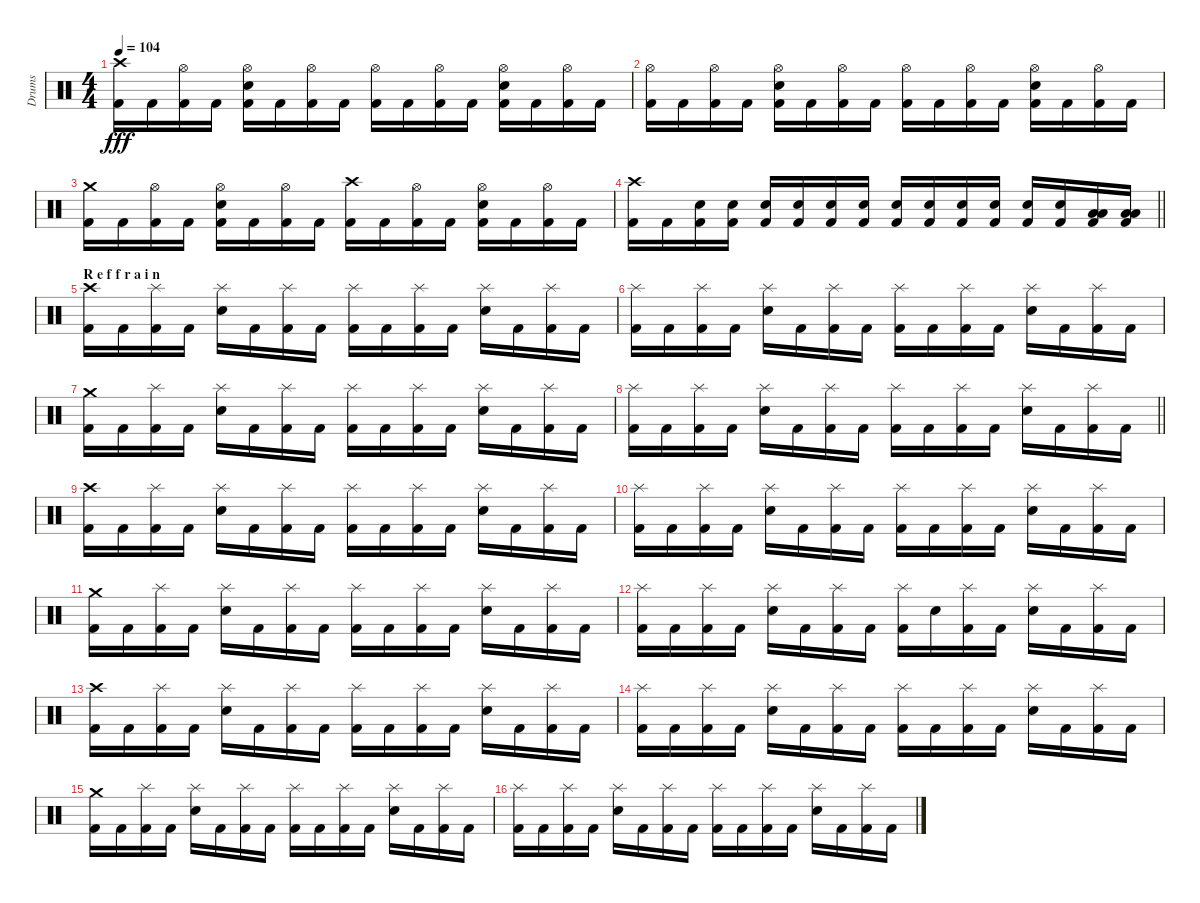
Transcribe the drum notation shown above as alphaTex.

\track ("Drums" "Drums") {instrument percussion}
\staff {score}
\articulation defaults
\ts (4 4)
\tempo 104
\clef neutral
\ks c
("Crash high (hit)" "Kick (hit) 2").16{dy fff} "Kick (hit) 2".16 ("Hi-Hat (open)" "Kick (hit) 2").16 "Kick (hit) 2".16 ("Hi-Hat (open)" "Snare (hit) 2" "Kick (hit) 2").16 "Kick (hit) 2".16 ("Hi-Hat (open)" "Kick (hit) 2").16 "Kick (hit) 2".16 ("Hi-Hat (open)" "Kick (hit) 2").16 "Kick (hit) 2".16 ("Hi-Hat (open)" "Kick (hit) 2").16 "Kick (hit) 2".16 ("Hi-Hat (open)" "Snare (hit) 2" "Kick (hit) 2").16 "Kick (hit) 2".16 ("Hi-Hat (open)" "Kick (hit) 2").16 "Kick (hit) 2".16 |
("Hi-Hat (open)" "Kick (hit) 2").16 "Kick (hit) 2".16 ("Hi-Hat (open)" "Kick (hit) 2").16 "Kick (hit) 2".16 ("Hi-Hat (open)" "Snare (hit) 2" "Kick (hit) 2").16 "Kick (hit) 2".16 ("Hi-Hat (open)" "Kick (hit) 2").16 "Kick (hit) 2".16 ("Hi-Hat (open)" "Kick (hit) 2").16 "Kick (hit) 2".16 ("Hi-Hat (open)" "Kick (hit) 2").16 "Kick (hit) 2".16 ("Hi-Hat (open)" "Snare (hit) 2" "Kick (hit) 2").16 "Kick (hit) 2".16 ("Hi-Hat (open)" "Kick (hit) 2").16 "Kick (hit) 2".16 |
("Crash medium (hit)" "Kick (hit) 2").16 "Kick (hit) 2".16 ("Hi-Hat (open)" "Kick (hit) 2").16 "Kick (hit) 2".16 ("Hi-Hat (open)" "Snare (hit) 2" "Kick (hit) 2").16 "Kick (hit) 2".16 ("Hi-Hat (open)" "Kick (hit) 2").16 "Kick (hit) 2".16 ("Crash high (hit)" "Kick (hit) 2").16 "Kick (hit) 2".16 ("Hi-Hat (open)" "Kick (hit) 2").16 "Kick (hit) 2".16 ("Hi-Hat (open)" "Snare (hit) 2" "Kick (hit) 2").16 "Kick (hit) 2".16 ("Hi-Hat (open)" "Kick (hit) 2").16 "Kick (hit) 2".16 |
\barLineRight lightlight
("Crash high (hit)" "Kick (hit) 2").16 "Kick (hit) 2".16 ("Snare (hit) 2" "Kick (hit) 2").16 ("Snare (hit) 2" "Kick (hit) 2").16 ("Snare (hit) 2" "Kick (hit) 2").16 ("Snare (hit) 2" "Kick (hit) 2").16 ("Snare (hit) 2" "Kick (hit) 2").16 ("Snare (hit) 2" "Kick (hit) 2").16 ("Snare (hit) 2" "Kick (hit) 2").16 ("Snare (hit) 2" "Kick (hit) 2").16 ("Snare (hit) 2" "Kick (hit) 2").16 ("Snare (hit) 2" "Kick (hit) 2").16 ("Snare (hit) 2" "Kick (hit) 2").16 ("Snare (hit) 2" "Kick (hit) 2").16 ("Low Tom (hit)" "Low Floor Tom (hit)" "Kick (hit) 2").16 ("Low Tom (hit)" "Low Floor Tom (hit)" "Kick (hit) 2").16 |
\section ("" "R e f f r a i n")
("Crash high (hit)" "Kick (hit) 2").16 "Kick (hit) 2".16 ("Splash (hit)" "Kick (hit) 2").16 "Kick (hit) 2".16 ("Splash (hit)" "Snare (hit) 2").16 "Kick (hit) 2".16 ("Splash (hit)" "Kick (hit) 2").16 "Kick (hit) 2".16 ("Splash (hit)" "Kick (hit) 2").16 "Kick (hit) 2".16 ("Splash (hit)" "Kick (hit) 2").16 "Kick (hit) 2".16 ("Splash (hit)" "Snare (hit) 2").16 "Kick (hit) 2".16 ("Splash (hit)" "Kick (hit) 2").16 "Kick (hit) 2".16 |
("Splash (hit)" "Kick (hit) 2").16 "Kick (hit) 2".16 ("Splash (hit)" "Kick (hit) 2").16 "Kick (hit) 2".16 ("Splash (hit)" "Snare (hit) 2").16 "Kick (hit) 2".16 ("Splash (hit)" "Kick (hit) 2").16 "Kick (hit) 2".16 ("Splash (hit)" "Kick (hit) 2").16 "Kick (hit) 2".16 ("Splash (hit)" "Kick (hit) 2").16 "Kick (hit) 2".16 ("Splash (hit)" "Snare (hit) 2").16 "Kick (hit) 2".16 ("Splash (hit)" "Kick (hit) 2").16 "Kick (hit) 2".16 |
("Crash medium (hit)" "Kick (hit) 2").16 "Kick (hit) 2".16 ("Splash (hit)" "Kick (hit) 2").16 "Kick (hit) 2".16 ("Splash (hit)" "Snare (hit) 2").16 "Kick (hit) 2".16 ("Splash (hit)" "Kick (hit) 2").16 "Kick (hit) 2".16 ("Splash (hit)" "Kick (hit) 2").16 "Kick (hit) 2".16 ("Splash (hit)" "Kick (hit) 2").16 "Kick (hit) 2".16 ("Splash (hit)" "Snare (hit) 2").16 "Kick (hit) 2".16 ("Splash (hit)" "Kick (hit) 2").16 "Kick (hit) 2".16 |
\barLineRight lightlight
("Splash (hit)" "Kick (hit) 2").16 "Kick (hit) 2".16 ("Splash (hit)" "Kick (hit) 2").16 "Kick (hit) 2".16 ("Splash (hit)" "Snare (hit) 2").16 "Kick (hit) 2".16 ("Splash (hit)" "Kick (hit) 2").16 "Kick (hit) 2".16 ("Splash (hit)" "Kick (hit) 2").16 "Kick (hit) 2".16 ("Splash (hit)" "Kick (hit) 2").16 "Kick (hit) 2".16 ("Splash (hit)" "Snare (hit) 2").16 "Kick (hit) 2".16 ("Splash (hit)" "Kick (hit) 2").16 "Kick (hit) 2".16 |
("Crash high (hit)" "Kick (hit) 2").16 "Kick (hit) 2".16 ("Splash (hit)" "Kick (hit) 2").16 "Kick (hit) 2".16 ("Splash (hit)" "Snare (hit) 2").16 "Kick (hit) 2".16 ("Splash (hit)" "Kick (hit) 2").16 "Kick (hit) 2".16 ("Splash (hit)" "Kick (hit) 2").16 "Kick (hit) 2".16 ("Splash (hit)" "Kick (hit) 2").16 "Kick (hit) 2".16 ("Splash (hit)" "Snare (hit) 2").16 "Kick (hit) 2".16 ("Splash (hit)" "Kick (hit) 2").16 "Kick (hit) 2".16 |
("Splash (hit)" "Kick (hit) 2").16 "Kick (hit) 2".16 ("Splash (hit)" "Kick (hit) 2").16 "Kick (hit) 2".16 ("Splash (hit)" "Snare (hit) 2").16 "Kick (hit) 2".16 ("Splash (hit)" "Kick (hit) 2").16 "Kick (hit) 2".16 ("Splash (hit)" "Kick (hit) 2").16 "Kick (hit) 2".16 ("Splash (hit)" "Kick (hit) 2").16 "Kick (hit) 2".16 ("Splash (hit)" "Snare (hit) 2").16 "Kick (hit) 2".16 ("Splash (hit)" "Kick (hit) 2").16 "Kick (hit) 2".16 |
("Crash medium (hit)" "Kick (hit) 2").16 "Kick (hit) 2".16 ("Splash (hit)" "Kick (hit) 2").16 "Kick (hit) 2".16 ("Splash (hit)" "Snare (hit) 2").16 "Kick (hit) 2".16 ("Splash (hit)" "Kick (hit) 2").16 "Kick (hit) 2".16 ("Splash (hit)" "Kick (hit) 2").16 "Kick (hit) 2".16 ("Splash (hit)" "Kick (hit) 2").16 "Kick (hit) 2".16 ("Splash (hit)" "Snare (hit) 2").16 "Kick (hit) 2".16 ("Splash (hit)" "Kick (hit) 2").16 "Kick (hit) 2".16 |
("Splash (hit)" "Kick (hit) 2").16 "Kick (hit) 2".16 ("Splash (hit)" "Kick (hit) 2").16 "Kick (hit) 2".16 ("Splash (hit)" "Snare (hit) 2").16 "Kick (hit) 2".16 ("Splash (hit)" "Kick (hit) 2").16 "Kick (hit) 2".16 ("Splash (hit)" "Kick (hit) 2").16 "Snare (hit) 2".16 ("Splash (hit)" "Kick (hit) 2").16 "Kick (hit) 2".16 ("Splash (hit)" "Snare (hit) 2").16 "Kick (hit) 2".16 ("Splash (hit)" "Kick (hit) 2").16 "Kick (hit) 2".16 |
("Crash high (hit)" "Kick (hit) 2").16 "Kick (hit) 2".16 ("Splash (hit)" "Kick (hit) 2").16 "Kick (hit) 2".16 ("Splash (hit)" "Snare (hit) 2").16 "Kick (hit) 2".16 ("Splash (hit)" "Kick (hit) 2").16 "Kick (hit) 2".16 ("Splash (hit)" "Kick (hit) 2").16 "Kick (hit) 2".16 ("Splash (hit)" "Kick (hit) 2").16 "Kick (hit) 2".16 ("Splash (hit)" "Snare (hit) 2").16 "Kick (hit) 2".16 ("Splash (hit)" "Kick (hit) 2").16 "Kick (hit) 2".16 |
("Splash (hit)" "Kick (hit) 2").16 "Kick (hit) 2".16 ("Splash (hit)" "Kick (hit) 2").16 "Kick (hit) 2".16 ("Splash (hit)" "Snare (hit) 2").16 "Kick (hit) 2".16 ("Splash (hit)" "Kick (hit) 2").16 "Kick (hit) 2".16 ("Splash (hit)" "Kick (hit) 2").16 "Kick (hit) 2".16 ("Splash (hit)" "Kick (hit) 2").16 "Kick (hit) 2".16 ("Splash (hit)" "Snare (hit) 2").16 "Kick (hit) 2".16 ("Splash (hit)" "Kick (hit) 2").16 "Kick (hit) 2".16 |
("Crash medium (hit)" "Kick (hit) 2").16 "Kick (hit) 2".16 ("Splash (hit)" "Kick (hit) 2").16 "Kick (hit) 2".16 ("Splash (hit)" "Snare (hit) 2").16 "Kick (hit) 2".16 ("Splash (hit)" "Kick (hit) 2").16 "Kick (hit) 2".16 ("Splash (hit)" "Kick (hit) 2").16 "Kick (hit) 2".16 ("Splash (hit)" "Kick (hit) 2").16 "Kick (hit) 2".16 ("Splash (hit)" "Snare (hit) 2").16 "Kick (hit) 2".16 ("Splash (hit)" "Kick (hit) 2").16 "Kick (hit) 2".16 |
("Splash (hit)" "Kick (hit) 2").16 "Kick (hit) 2".16 ("Splash (hit)" "Kick (hit) 2").16 "Kick (hit) 2".16 ("Splash (hit)" "Snare (hit) 2").16 "Kick (hit) 2".16 ("Splash (hit)" "Kick (hit) 2").16 "Kick (hit) 2".16 ("Splash (hit)" "Kick (hit) 2").16 "Kick (hit) 2".16 ("Splash (hit)" "Kick (hit) 2").16 "Kick (hit) 2".16 ("Splash (hit)" "Snare (hit) 2").16 "Kick (hit) 2".16 ("Splash (hit)" "Kick (hit) 2").16 "Kick (hit) 2".16
